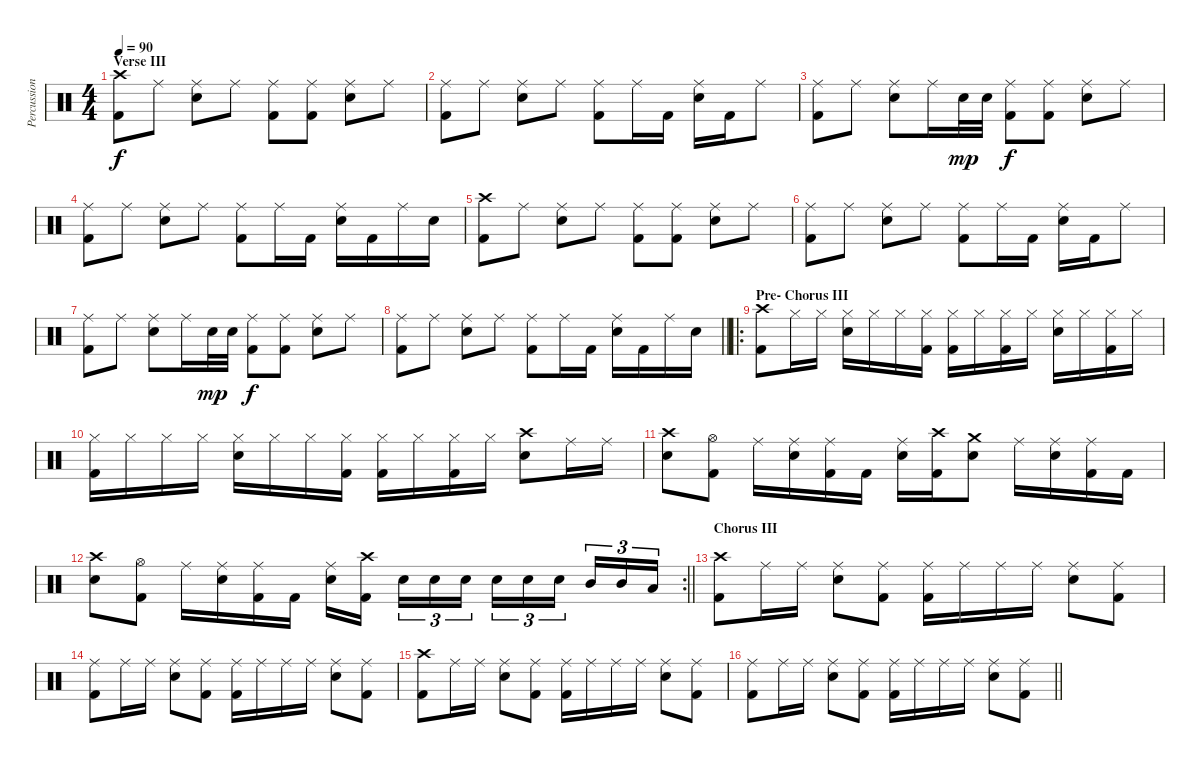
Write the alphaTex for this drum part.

\track ("Percussions" "Percussion") {instrument percussion}
\staff {score}
\articulation defaults
\ts (4 4)
\section ("" "Verse III")
\tempo 90
\clef neutral
\ks c
("Crash high (hit)" "Kick (hit) 2").8{dy f} "Ride (middle)".8 ("Ride (middle)" "Electric Snare (hit)").8 "Ride (middle)".8 ("Ride (middle)" "Kick (hit) 2").8 ("Ride (middle)" "Kick (hit) 2").8 ("Ride (middle)" "Electric Snare (hit)").8 "Ride (middle)".8 |
("Ride (middle)" "Kick (hit) 2").8 "Ride (middle)".8 ("Ride (middle)" "Electric Snare (hit)").8 "Ride (middle)".8 ("Ride (middle)" "Kick (hit) 2").8 "Ride (middle)".16 "Kick (hit) 2".16 ("Ride (middle)" "Electric Snare (hit)").16 "Kick (hit) 2".16 "Ride (middle)".8 |
("Ride (middle)" "Kick (hit) 2").8 "Ride (middle)".8 ("Ride (middle)" "Electric Snare (hit)").8 "Ride (middle)".16 "Electric Snare (hit)".32{dy mp} "Electric Snare (hit)".32 ("Ride (middle)" "Kick (hit) 2").8{dy f} ("Ride (middle)" "Kick (hit) 2").8 ("Ride (middle)" "Electric Snare (hit)").8 "Ride (middle)".8 |
("Ride (middle)" "Kick (hit) 2").8 "Ride (middle)".8 ("Ride (middle)" "Electric Snare (hit)").8 "Ride (middle)".8 ("Ride (middle)" "Kick (hit) 2").8 "Ride (middle)".16 "Kick (hit) 2".16 ("Ride (middle)" "Electric Snare (hit)").16 "Kick (hit) 2".16 "Ride (middle)".16 "Electric Snare (hit)".16 |
("Crash high (hit)" "Kick (hit) 2").8 "Ride (middle)".8 ("Ride (middle)" "Electric Snare (hit)").8 "Ride (middle)".8 ("Ride (middle)" "Kick (hit) 2").8 ("Ride (middle)" "Kick (hit) 2").8 ("Ride (middle)" "Electric Snare (hit)").8 "Ride (middle)".8 |
("Ride (middle)" "Kick (hit) 2").8 "Ride (middle)".8 ("Ride (middle)" "Electric Snare (hit)").8 "Ride (middle)".8 ("Ride (middle)" "Kick (hit) 2").8 "Ride (middle)".16 "Kick (hit) 2".16 ("Ride (middle)" "Electric Snare (hit)").16 "Kick (hit) 2".16 "Ride (middle)".8 |
("Ride (middle)" "Kick (hit) 2").8 "Ride (middle)".8 ("Ride (middle)" "Electric Snare (hit)").8 "Ride (middle)".16 "Electric Snare (hit)".32{dy mp} "Electric Snare (hit)".32 ("Ride (middle)" "Kick (hit) 2").8{dy f} ("Ride (middle)" "Kick (hit) 2").8 ("Ride (middle)" "Electric Snare (hit)").8 "Ride (middle)".8 |
\barLineRight lightlight
("Ride (middle)" "Kick (hit) 2").8 "Ride (middle)".8 ("Ride (middle)" "Electric Snare (hit)").8 "Ride (middle)".8 ("Ride (middle)" "Kick (hit) 2").8 "Ride (middle)".16 "Kick (hit) 2".16 ("Ride (middle)" "Electric Snare (hit)").16 "Kick (hit) 2".16 "Ride (middle)".16 "Electric Snare (hit)".16 |
\ro
\section ("" "Pre- Chorus III")
("Crash high (hit)" "Kick (hit) 2").8 "Hi-Hat (closed)".16 "Hi-Hat (closed)".16 ("Hi-Hat (closed)" "Electric Snare (hit)").16 "Hi-Hat (closed)".16 "Hi-Hat (closed)".16 ("Hi-Hat (closed)" "Kick (hit) 2").16 ("Hi-Hat (closed)" "Kick (hit) 2").16 "Hi-Hat (closed)".16 ("Hi-Hat (closed)" "Kick (hit) 2").16 "Hi-Hat (closed)".16 ("Hi-Hat (closed)" "Electric Snare (hit)").16 "Hi-Hat (closed)".16 ("Hi-Hat (closed)" "Kick (hit) 2").16 "Hi-Hat (closed)".16 |
("Hi-Hat (closed)" "Kick (hit) 2").16 "Hi-Hat (closed)".16 "Hi-Hat (closed)".16 "Hi-Hat (closed)".16 ("Hi-Hat (closed)" "Electric Snare (hit)").16 "Hi-Hat (closed)".16 "Hi-Hat (closed)".16 ("Hi-Hat (closed)" "Kick (hit) 2").16 ("Hi-Hat (closed)" "Kick (hit) 2").16 "Hi-Hat (closed)".16 ("Hi-Hat (closed)" "Kick (hit) 2").16 "Hi-Hat (closed)".16 ("Crash high (hit)" "Electric Snare (hit)").8 "Ride (middle)".16 "Ride (middle)".16 |
("Crash high (hit)" "Electric Snare (hit)").8 ("Hi-Hat (open)" "Kick (hit) 2").8 "Ride (middle)".16 ("Ride (middle)" "Electric Snare (hit)").16 ("Ride (middle)" "Kick (hit) 2").16 "Kick (hit) 2".16 ("Ride (middle)" "Electric Snare (hit)").16 ("Crash high (hit)" "Kick (hit) 2").16 ("Crash medium (hit)" "Electric Snare (hit)").8 "Ride (middle)".16 ("Ride (middle)" "Electric Snare (hit)").16 ("Ride (middle)" "Kick (hit) 2").16 "Kick (hit) 2".16 |
\rc 2
\barLineRight lightlight
("Crash high (hit)" "Electric Snare (hit)").8 ("Hi-Hat (open)" "Kick (hit) 2").8 "Ride (middle)".16 ("Ride (middle)" "Electric Snare (hit)").16 ("Ride (middle)" "Kick (hit) 2").16 "Kick (hit) 2".16 ("Ride (middle)" "Electric Snare (hit)").16 ("Crash high (hit)" "Kick (hit) 2").16{beam splitsecondary} "Electric Snare (hit)".16{tu (3 2)} "Electric Snare (hit)".16{tu (3 2)} "Electric Snare (hit)".16{tu (3 2)} "Electric Snare (hit)".16{tu (3 2)} "Electric Snare (hit)".16{tu (3 2)} "Electric Snare (hit)".16{tu (3 2) beam splitsecondary} "Mid Tom (hit)".16{tu (3 2)} "Mid Tom (hit)".16{tu (3 2)} "Low Tom (hit)".16{tu (3 2)} |
\section ("" "Chorus III")
("Crash high (hit)" "Kick (hit) 2").8 "Ride (middle)".16 "Ride (middle)".16 ("Ride (middle)" "Electric Snare (hit)").8 ("Ride (middle)" "Kick (hit) 2").8 ("Ride (middle)" "Kick (hit) 2").16 "Ride (middle)".16 "Ride (middle)".16 "Ride (middle)".16 ("Ride (middle)" "Electric Snare (hit)").8 ("Ride (middle)" "Kick (hit) 2").8 |
("Ride (middle)" "Kick (hit) 2").8 "Ride (middle)".16 "Ride (middle)".16 ("Ride (middle)" "Electric Snare (hit)").8 ("Ride (middle)" "Kick (hit) 2").8 ("Ride (middle)" "Kick (hit) 2").16 "Ride (middle)".16 "Ride (middle)".16 "Ride (middle)".16 ("Ride (middle)" "Electric Snare (hit)").8 ("Ride (middle)" "Kick (hit) 2").8 |
("Crash high (hit)" "Kick (hit) 2").8 "Ride (middle)".16 "Ride (middle)".16 ("Ride (middle)" "Electric Snare (hit)").8 ("Ride (middle)" "Kick (hit) 2").8 ("Ride (middle)" "Kick (hit) 2").16 "Ride (middle)".16 "Ride (middle)".16 "Ride (middle)".16 ("Ride (middle)" "Electric Snare (hit)").8 ("Ride (middle)" "Kick (hit) 2").8 |
\barLineRight lightlight
("Ride (middle)" "Kick (hit) 2").8 "Ride (middle)".16 "Ride (middle)".16 ("Ride (middle)" "Electric Snare (hit)").8 ("Ride (middle)" "Kick (hit) 2").8 ("Ride (middle)" "Kick (hit) 2").16 "Ride (middle)".16 "Ride (middle)".16 "Ride (middle)".16 ("Ride (middle)" "Electric Snare (hit)").8 ("Ride (middle)" "Kick (hit) 2").8
